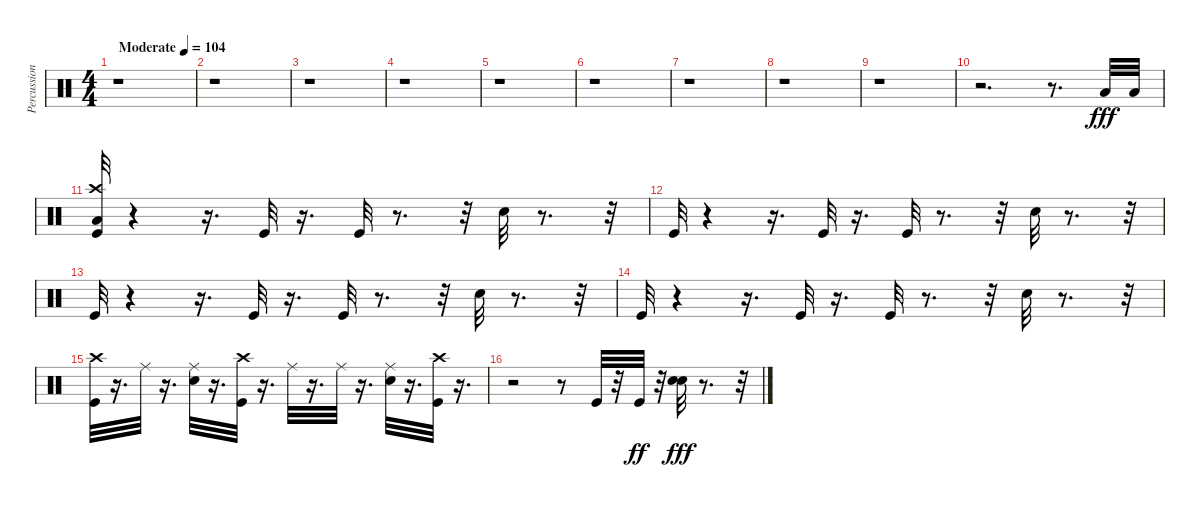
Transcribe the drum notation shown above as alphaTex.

\track ("Percussion" "Percussion") {instrument percussion}
\staff {score}
\articulation defaults
\ts (4 4)
\tempo (104 "Moderate")
\clef neutral
\ks c
r.1{dy fff} |
r.1 |
r.1 |
r.1 |
r.1 |
r.1 |
r.1 |
r.1 |
r.1 |
r.2{d} r.8{d} "Low Floor Tom (hit)".32 "Low Floor Tom (hit)".32 |
("Low Floor Tom (hit)" "Crash high (hit)" "Kick (hit)").32 r.4 r.16{d} "Kick (hit)".32 r.16{d} "Kick (hit)".32 r.8{d} r.32 "Hand Clap (hit)".32 r.8{d} r.32 |
"Kick (hit)".32 r.4 r.16{d} "Kick (hit)".32 r.16{d} "Kick (hit)".32 r.8{d} r.32 "Hand Clap (hit)".32 r.8{d} r.32 |
"Kick (hit)".32 r.4 r.16{d} "Kick (hit)".32 r.16{d} "Kick (hit)".32 r.8{d} r.32 "Hand Clap (hit)".32 r.8{d} r.32 |
"Kick (hit)".32 r.4 r.16{d} "Kick (hit)".32 r.16{d} "Kick (hit)".32 r.8{d} r.32 "Hand Clap (hit)".32 r.8{d} r.32 |
("Crash high (hit)" "Kick (hit)").32 r.16{d} "Ride (middle)".32 r.16{d} ("Ride (middle)" "Snare (hit) 2").32 r.16{d} ("Crash high (hit)" "Kick (hit)").32 r.16{d} "Ride (middle)".32 r.16{d} "Ride (middle)".32 r.16{d} ("Ride (middle)" "Snare (hit) 2").32 r.16{d} ("Crash high (hit)" "Kick (hit)").32 r.16{d} |
r.2 r.8 "Kick (hit)".32 r.32 "Kick (hit)".32{dy ff} r.32 ("Snare (hit) 2" "Snare (hit) 2").32{dy fff} r.8{d} r.32
